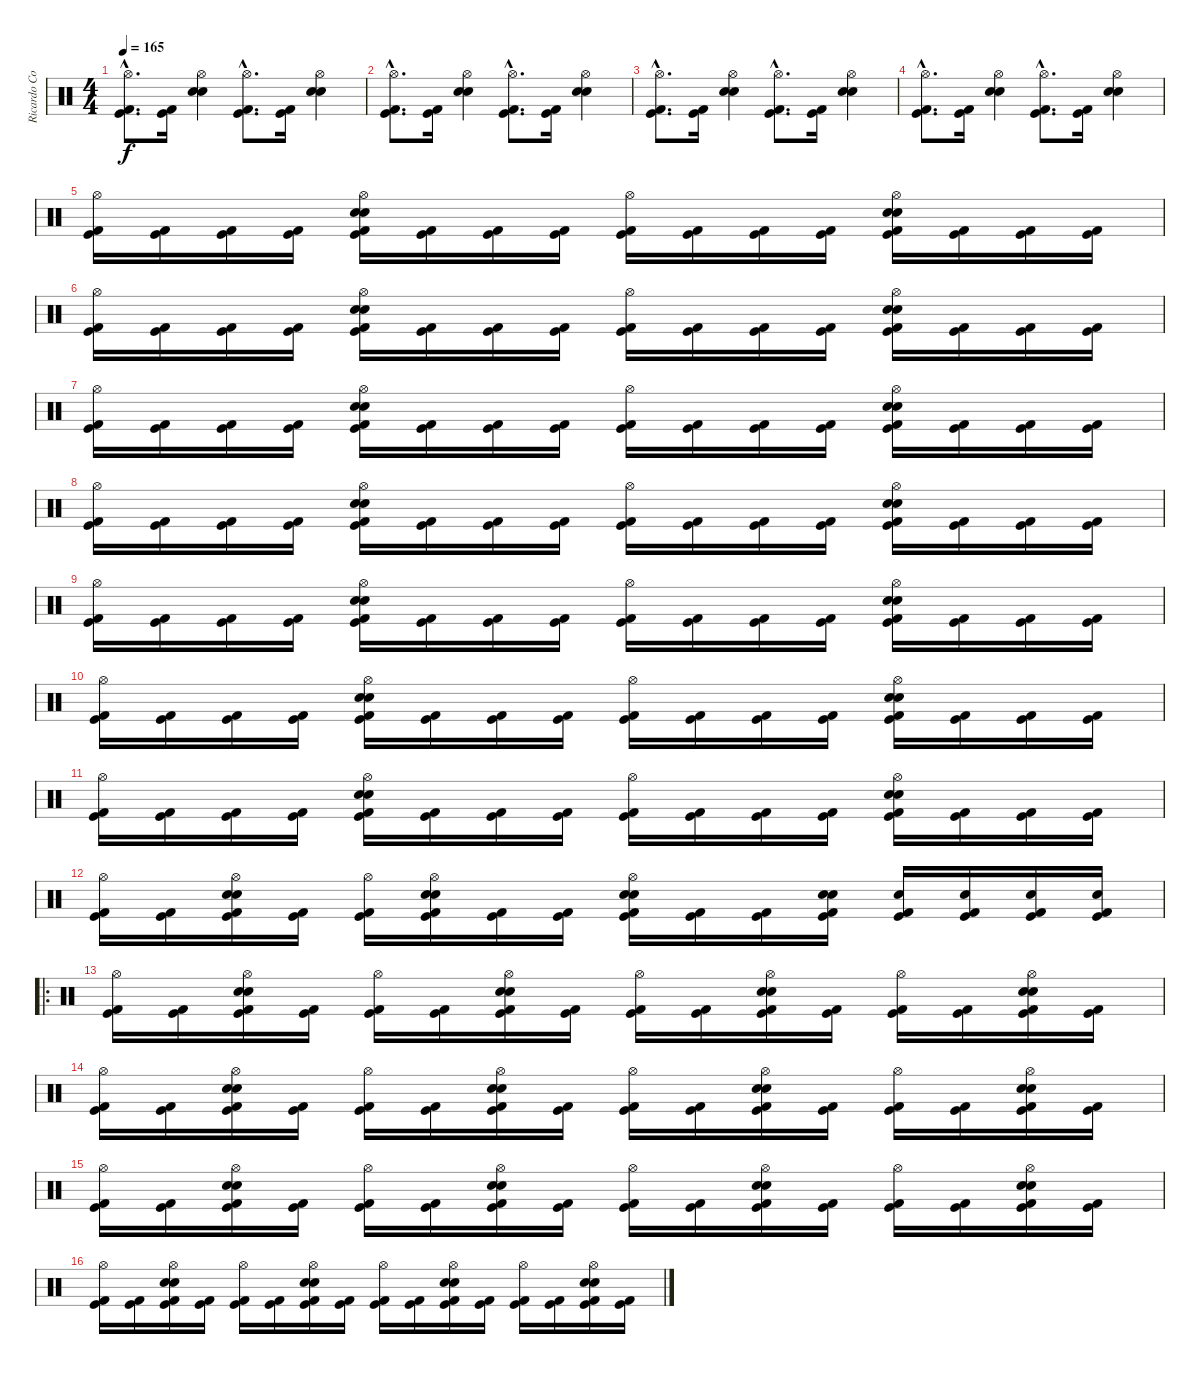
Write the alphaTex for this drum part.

\track ("Ricardo Confessori" "Ricardo Co") {instrument percussion}
\staff {score}
\articulation defaults
\ts (4 4)
\tempo 165
\clef neutral
\ks c
("Hi-Hat (open)"{hac} "Kick (hit) 2"{hac} "Kick (hit)"{hac}).8{d dy f} ("Kick (hit) 2" "Kick (hit)").16 ("Hi-Hat (open)" "Electric Snare (hit)" "Snare (hit) 2").4 ("Hi-Hat (open)"{hac} "Kick (hit) 2"{hac} "Kick (hit)"{hac}).8{d} ("Kick (hit) 2" "Kick (hit)").16 ("Hi-Hat (open)" "Electric Snare (hit)" "Snare (hit) 2").4 |
("Hi-Hat (open)"{hac} "Kick (hit) 2"{hac} "Kick (hit)"{hac}).8{d} ("Kick (hit) 2" "Kick (hit)").16 ("Hi-Hat (open)" "Electric Snare (hit)" "Snare (hit) 2").4 ("Hi-Hat (open)"{hac} "Kick (hit) 2"{hac} "Kick (hit)"{hac}).8{d} ("Kick (hit) 2" "Kick (hit)").16 ("Hi-Hat (open)" "Electric Snare (hit)" "Snare (hit) 2").4 |
("Hi-Hat (open)"{hac} "Kick (hit) 2"{hac} "Kick (hit)"{hac}).8{d} ("Kick (hit) 2" "Kick (hit)").16 ("Hi-Hat (open)" "Electric Snare (hit)" "Snare (hit) 2").4 ("Hi-Hat (open)"{hac} "Kick (hit) 2"{hac} "Kick (hit)"{hac}).8{d} ("Kick (hit) 2" "Kick (hit)").16 ("Hi-Hat (open)" "Electric Snare (hit)" "Snare (hit) 2").4 |
("Hi-Hat (open)"{hac} "Kick (hit) 2"{hac} "Kick (hit)"{hac}).8{d} ("Kick (hit) 2" "Kick (hit)").16 ("Hi-Hat (open)" "Electric Snare (hit)" "Snare (hit) 2").4 ("Hi-Hat (open)"{hac} "Kick (hit) 2"{hac} "Kick (hit)"{hac}).8{d} ("Kick (hit) 2" "Kick (hit)").16 ("Hi-Hat (open)" "Electric Snare (hit)" "Snare (hit) 2").4 |
("Hi-Hat (open)" "Kick (hit) 2" "Kick (hit)").16 ("Kick (hit) 2" "Kick (hit)").16 ("Kick (hit) 2" "Kick (hit)").16 ("Kick (hit) 2" "Kick (hit)").16 ("Hi-Hat (open)" "Electric Snare (hit)" "Snare (hit) 2" "Kick (hit) 2" "Kick (hit)").16 ("Kick (hit) 2" "Kick (hit)").16 ("Kick (hit) 2" "Kick (hit)").16 ("Kick (hit) 2" "Kick (hit)").16 ("Hi-Hat (open)" "Kick (hit) 2" "Kick (hit)").16 ("Kick (hit) 2" "Kick (hit)").16 ("Kick (hit) 2" "Kick (hit)").16 ("Kick (hit) 2" "Kick (hit)").16 ("Hi-Hat (open)" "Electric Snare (hit)" "Snare (hit) 2" "Kick (hit) 2" "Kick (hit)").16 ("Kick (hit) 2" "Kick (hit)").16 ("Kick (hit) 2" "Kick (hit)").16 ("Kick (hit) 2" "Kick (hit)").16 |
("Hi-Hat (open)" "Kick (hit) 2" "Kick (hit)").16 ("Kick (hit) 2" "Kick (hit)").16 ("Kick (hit) 2" "Kick (hit)").16 ("Kick (hit) 2" "Kick (hit)").16 ("Hi-Hat (open)" "Electric Snare (hit)" "Snare (hit) 2" "Kick (hit) 2" "Kick (hit)").16 ("Kick (hit) 2" "Kick (hit)").16 ("Kick (hit) 2" "Kick (hit)").16 ("Kick (hit) 2" "Kick (hit)").16 ("Hi-Hat (open)" "Kick (hit) 2" "Kick (hit)").16 ("Kick (hit) 2" "Kick (hit)").16 ("Kick (hit) 2" "Kick (hit)").16 ("Kick (hit) 2" "Kick (hit)").16 ("Hi-Hat (open)" "Electric Snare (hit)" "Snare (hit) 2" "Kick (hit) 2" "Kick (hit)").16 ("Kick (hit) 2" "Kick (hit)").16 ("Kick (hit) 2" "Kick (hit)").16 ("Kick (hit) 2" "Kick (hit)").16 |
("Hi-Hat (open)" "Kick (hit) 2" "Kick (hit)").16 ("Kick (hit) 2" "Kick (hit)").16 ("Kick (hit) 2" "Kick (hit)").16 ("Kick (hit) 2" "Kick (hit)").16 ("Hi-Hat (open)" "Electric Snare (hit)" "Snare (hit) 2" "Kick (hit) 2" "Kick (hit)").16 ("Kick (hit) 2" "Kick (hit)").16 ("Kick (hit) 2" "Kick (hit)").16 ("Kick (hit) 2" "Kick (hit)").16 ("Hi-Hat (open)" "Kick (hit) 2" "Kick (hit)").16 ("Kick (hit) 2" "Kick (hit)").16 ("Kick (hit) 2" "Kick (hit)").16 ("Kick (hit) 2" "Kick (hit)").16 ("Hi-Hat (open)" "Electric Snare (hit)" "Snare (hit) 2" "Kick (hit) 2" "Kick (hit)").16 ("Kick (hit) 2" "Kick (hit)").16 ("Kick (hit) 2" "Kick (hit)").16 ("Kick (hit) 2" "Kick (hit)").16 |
("Hi-Hat (open)" "Kick (hit) 2" "Kick (hit)").16 ("Kick (hit) 2" "Kick (hit)").16 ("Kick (hit) 2" "Kick (hit)").16 ("Kick (hit) 2" "Kick (hit)").16 ("Hi-Hat (open)" "Electric Snare (hit)" "Snare (hit) 2" "Kick (hit) 2" "Kick (hit)").16 ("Kick (hit) 2" "Kick (hit)").16 ("Kick (hit) 2" "Kick (hit)").16 ("Kick (hit) 2" "Kick (hit)").16 ("Hi-Hat (open)" "Kick (hit) 2" "Kick (hit)").16 ("Kick (hit) 2" "Kick (hit)").16 ("Kick (hit) 2" "Kick (hit)").16 ("Kick (hit) 2" "Kick (hit)").16 ("Hi-Hat (open)" "Electric Snare (hit)" "Snare (hit) 2" "Kick (hit) 2" "Kick (hit)").16 ("Kick (hit) 2" "Kick (hit)").16 ("Kick (hit) 2" "Kick (hit)").16 ("Kick (hit) 2" "Kick (hit)").16 |
("Hi-Hat (open)" "Kick (hit) 2" "Kick (hit)").16 ("Kick (hit) 2" "Kick (hit)").16 ("Kick (hit) 2" "Kick (hit)").16 ("Kick (hit) 2" "Kick (hit)").16 ("Hi-Hat (open)" "Electric Snare (hit)" "Snare (hit) 2" "Kick (hit) 2" "Kick (hit)").16 ("Kick (hit) 2" "Kick (hit)").16 ("Kick (hit) 2" "Kick (hit)").16 ("Kick (hit) 2" "Kick (hit)").16 ("Hi-Hat (open)" "Kick (hit) 2" "Kick (hit)").16 ("Kick (hit) 2" "Kick (hit)").16 ("Kick (hit) 2" "Kick (hit)").16 ("Kick (hit) 2" "Kick (hit)").16 ("Hi-Hat (open)" "Electric Snare (hit)" "Snare (hit) 2" "Kick (hit) 2" "Kick (hit)").16 ("Kick (hit) 2" "Kick (hit)").16 ("Kick (hit) 2" "Kick (hit)").16 ("Kick (hit) 2" "Kick (hit)").16 |
("Hi-Hat (open)" "Kick (hit) 2" "Kick (hit)").16 ("Kick (hit) 2" "Kick (hit)").16 ("Kick (hit) 2" "Kick (hit)").16 ("Kick (hit) 2" "Kick (hit)").16 ("Hi-Hat (open)" "Electric Snare (hit)" "Snare (hit) 2" "Kick (hit) 2" "Kick (hit)").16 ("Kick (hit) 2" "Kick (hit)").16 ("Kick (hit) 2" "Kick (hit)").16 ("Kick (hit) 2" "Kick (hit)").16 ("Hi-Hat (open)" "Kick (hit) 2" "Kick (hit)").16 ("Kick (hit) 2" "Kick (hit)").16 ("Kick (hit) 2" "Kick (hit)").16 ("Kick (hit) 2" "Kick (hit)").16 ("Hi-Hat (open)" "Electric Snare (hit)" "Snare (hit) 2" "Kick (hit) 2" "Kick (hit)").16 ("Kick (hit) 2" "Kick (hit)").16 ("Kick (hit) 2" "Kick (hit)").16 ("Kick (hit) 2" "Kick (hit)").16 |
("Hi-Hat (open)" "Kick (hit) 2" "Kick (hit)").16 ("Kick (hit) 2" "Kick (hit)").16 ("Kick (hit) 2" "Kick (hit)").16 ("Kick (hit) 2" "Kick (hit)").16 ("Hi-Hat (open)" "Electric Snare (hit)" "Snare (hit) 2" "Kick (hit) 2" "Kick (hit)").16 ("Kick (hit) 2" "Kick (hit)").16 ("Kick (hit) 2" "Kick (hit)").16 ("Kick (hit) 2" "Kick (hit)").16 ("Hi-Hat (open)" "Kick (hit) 2" "Kick (hit)").16 ("Kick (hit) 2" "Kick (hit)").16 ("Kick (hit) 2" "Kick (hit)").16 ("Kick (hit) 2" "Kick (hit)").16 ("Hi-Hat (open)" "Electric Snare (hit)" "Snare (hit) 2" "Kick (hit) 2" "Kick (hit)").16 ("Kick (hit) 2" "Kick (hit)").16 ("Kick (hit) 2" "Kick (hit)").16 ("Kick (hit) 2" "Kick (hit)").16 |
("Hi-Hat (open)" "Kick (hit) 2" "Kick (hit)").16 ("Kick (hit) 2" "Kick (hit)").16 ("Hi-Hat (open)" "Electric Snare (hit)" "Snare (hit) 2" "Kick (hit) 2" "Kick (hit)").16 ("Kick (hit) 2" "Kick (hit)").16 ("Hi-Hat (open)" "Kick (hit) 2" "Kick (hit)").16 ("Hi-Hat (open)" "Electric Snare (hit)" "Snare (hit) 2" "Kick (hit) 2" "Kick (hit)").16 ("Kick (hit) 2" "Kick (hit)").16 ("Kick (hit) 2" "Kick (hit)").16 ("Hi-Hat (open)" "Electric Snare (hit)" "Snare (hit) 2" "Kick (hit) 2" "Kick (hit)").16 ("Kick (hit) 2" "Kick (hit)").16 ("Kick (hit) 2" "Kick (hit)").16 ("Electric Snare (hit)" "Snare (hit) 2" "Kick (hit) 2" "Kick (hit)").16 ("Electric Snare (hit)" "Kick (hit) 2" "Kick (hit)").16 ("Electric Snare (hit)" "Kick (hit) 2" "Kick (hit)").16 ("Electric Snare (hit)" "Kick (hit) 2" "Kick (hit)").16 ("Electric Snare (hit)" "Kick (hit) 2" "Kick (hit)").16 |
\ro
("Hi-Hat (open)" "Kick (hit) 2" "Kick (hit)").16 ("Kick (hit) 2" "Kick (hit)").16 ("Hi-Hat (open)" "Electric Snare (hit)" "Snare (hit) 2" "Kick (hit) 2" "Kick (hit)").16 ("Kick (hit) 2" "Kick (hit)").16 ("Hi-Hat (open)" "Kick (hit) 2" "Kick (hit)").16 ("Kick (hit) 2" "Kick (hit)").16 ("Hi-Hat (open)" "Electric Snare (hit)" "Snare (hit) 2" "Kick (hit) 2" "Kick (hit)").16 ("Kick (hit) 2" "Kick (hit)").16 ("Hi-Hat (open)" "Kick (hit) 2" "Kick (hit)").16 ("Kick (hit) 2" "Kick (hit)").16 ("Hi-Hat (open)" "Electric Snare (hit)" "Snare (hit) 2" "Kick (hit) 2" "Kick (hit)").16 ("Kick (hit) 2" "Kick (hit)").16 ("Hi-Hat (open)" "Kick (hit) 2" "Kick (hit)").16 ("Kick (hit) 2" "Kick (hit)").16 ("Hi-Hat (open)" "Electric Snare (hit)" "Snare (hit) 2" "Kick (hit) 2" "Kick (hit)").16 ("Kick (hit) 2" "Kick (hit)").16 |
("Hi-Hat (open)" "Kick (hit) 2" "Kick (hit)").16 ("Kick (hit) 2" "Kick (hit)").16 ("Hi-Hat (open)" "Electric Snare (hit)" "Snare (hit) 2" "Kick (hit) 2" "Kick (hit)").16 ("Kick (hit) 2" "Kick (hit)").16 ("Hi-Hat (open)" "Kick (hit) 2" "Kick (hit)").16 ("Kick (hit) 2" "Kick (hit)").16 ("Hi-Hat (open)" "Electric Snare (hit)" "Snare (hit) 2" "Kick (hit) 2" "Kick (hit)").16 ("Kick (hit) 2" "Kick (hit)").16 ("Hi-Hat (open)" "Kick (hit) 2" "Kick (hit)").16 ("Kick (hit) 2" "Kick (hit)").16 ("Hi-Hat (open)" "Electric Snare (hit)" "Snare (hit) 2" "Kick (hit) 2" "Kick (hit)").16 ("Kick (hit) 2" "Kick (hit)").16 ("Hi-Hat (open)" "Kick (hit) 2" "Kick (hit)").16 ("Kick (hit) 2" "Kick (hit)").16 ("Hi-Hat (open)" "Electric Snare (hit)" "Snare (hit) 2" "Kick (hit) 2" "Kick (hit)").16 ("Kick (hit) 2" "Kick (hit)").16 |
("Hi-Hat (open)" "Kick (hit) 2" "Kick (hit)").16 ("Kick (hit) 2" "Kick (hit)").16 ("Hi-Hat (open)" "Electric Snare (hit)" "Snare (hit) 2" "Kick (hit) 2" "Kick (hit)").16 ("Kick (hit) 2" "Kick (hit)").16 ("Hi-Hat (open)" "Kick (hit) 2" "Kick (hit)").16 ("Kick (hit) 2" "Kick (hit)").16 ("Hi-Hat (open)" "Electric Snare (hit)" "Snare (hit) 2" "Kick (hit) 2" "Kick (hit)").16 ("Kick (hit) 2" "Kick (hit)").16 ("Hi-Hat (open)" "Kick (hit) 2" "Kick (hit)").16 ("Kick (hit) 2" "Kick (hit)").16 ("Hi-Hat (open)" "Electric Snare (hit)" "Snare (hit) 2" "Kick (hit) 2" "Kick (hit)").16 ("Kick (hit) 2" "Kick (hit)").16 ("Hi-Hat (open)" "Kick (hit) 2" "Kick (hit)").16 ("Kick (hit) 2" "Kick (hit)").16 ("Hi-Hat (open)" "Electric Snare (hit)" "Snare (hit) 2" "Kick (hit) 2" "Kick (hit)").16 ("Kick (hit) 2" "Kick (hit)").16 |
("Hi-Hat (open)" "Kick (hit) 2" "Kick (hit)").16 ("Kick (hit) 2" "Kick (hit)").16 ("Hi-Hat (open)" "Electric Snare (hit)" "Snare (hit) 2" "Kick (hit) 2" "Kick (hit)").16 ("Kick (hit) 2" "Kick (hit)").16 ("Hi-Hat (open)" "Kick (hit) 2" "Kick (hit)").16 ("Kick (hit) 2" "Kick (hit)").16 ("Hi-Hat (open)" "Electric Snare (hit)" "Snare (hit) 2" "Kick (hit) 2" "Kick (hit)").16 ("Kick (hit) 2" "Kick (hit)").16 ("Hi-Hat (open)" "Kick (hit) 2" "Kick (hit)").16 ("Kick (hit) 2" "Kick (hit)").16 ("Hi-Hat (open)" "Electric Snare (hit)" "Snare (hit) 2" "Kick (hit) 2" "Kick (hit)").16 ("Kick (hit) 2" "Kick (hit)").16 ("Hi-Hat (open)" "Kick (hit) 2" "Kick (hit)").16 ("Kick (hit) 2" "Kick (hit)").16 ("Hi-Hat (open)" "Electric Snare (hit)" "Snare (hit) 2" "Kick (hit) 2" "Kick (hit)").16 ("Kick (hit) 2" "Kick (hit)").16
